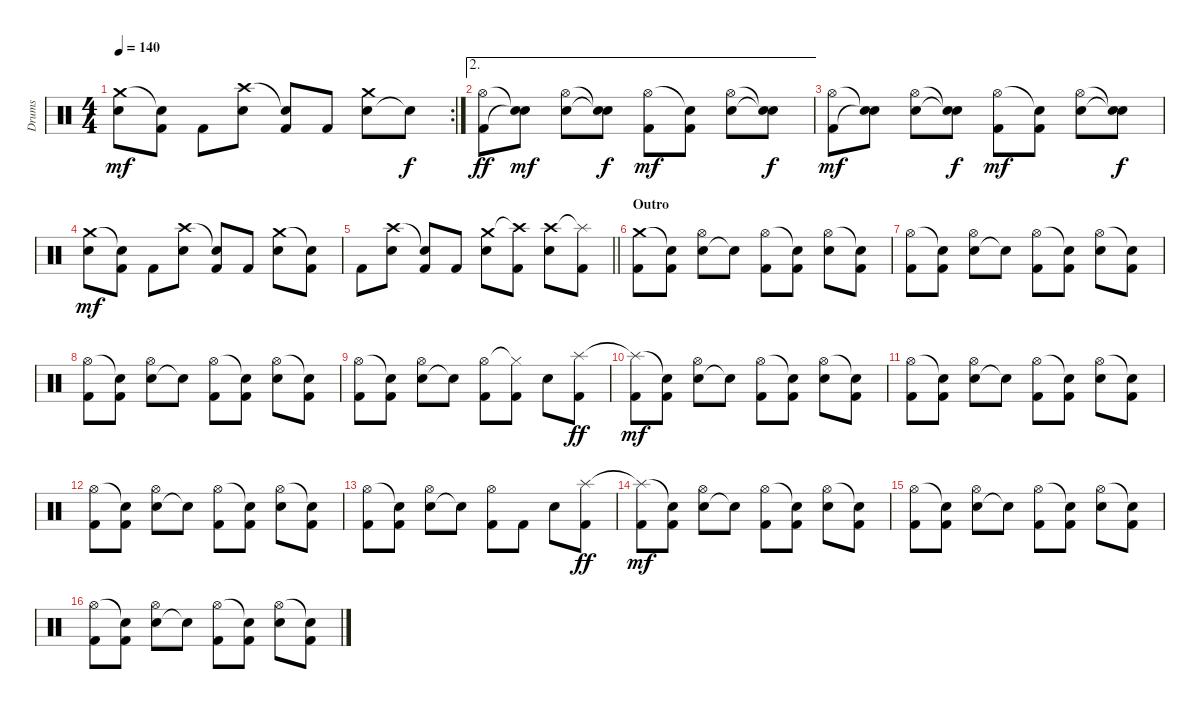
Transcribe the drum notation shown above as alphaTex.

\track ("Drums" "Drums") {instrument percussion}
\staff {score}
\articulation defaults
\rc 2
\ts (4 4)
\tempo 140
\clef neutral
\ks c
("Snare (hit) 2" "Crash medium (hit)").8{dy mf} ("Kick (hit) 2" "Snare (hit)"{t}).8 "Kick (hit) 2".8 ("Snare (hit) 2" "Crash high (hit)").8 ("Kick (hit) 2" "Snare (hit)"{t}).8 "Kick (hit) 2".8 ("Snare (hit) 2" "Crash medium (hit)").8 "Snare (hit)"{t}.8{dy f} |
\ae 2
("Kick (hit) 2" "Hi-Hat (open)").8{dy ff} ("Snare (hit)"{t} "Snare (hit)"{t}).8{dy mf} ("Snare (hit) 2" "Hi-Hat (open)").8 ("Snare (hit)"{t} "Snare (hit)"{t}).8{dy f} ("Kick (hit) 2" "Hi-Hat (open)").8{dy mf} ("Kick (hit) 2" "Snare (hit)"{t}).8 ("Snare (hit) 2" "Hi-Hat (open)").8 ("Snare (hit)"{t} "Snare (hit)"{t}).8{dy f} |
("Kick (hit) 2" "Hi-Hat (open)").8{dy mf} ("Snare (hit)"{t} "Snare (hit)"{t}).8 ("Snare (hit) 2" "Hi-Hat (open)").8 ("Snare (hit)"{t} "Snare (hit)"{t}).8{dy f} ("Kick (hit) 2" "Hi-Hat (open)").8{dy mf} ("Kick (hit) 2" "Snare (hit)"{t}).8 ("Snare (hit) 2" "Hi-Hat (open)").8 ("Snare (hit)"{t} "Snare (hit)"{t}).8{dy f} |
("Snare (hit) 2" "Crash medium (hit)").8{dy mf} ("Kick (hit) 2" "Snare (hit)"{t}).8 "Kick (hit) 2".8 ("Snare (hit) 2" "Crash high (hit)").8 ("Kick (hit) 2" "Snare (hit)"{t}).8 "Kick (hit) 2".8 ("Snare (hit) 2" "Crash medium (hit)").8 ("Kick (hit) 2" "Snare (hit)"{t}).8 |
\barLineRight lightlight "Kick (hit) 2".8
("Snare (hit) 2" "Crash high (hit)").8 ("Kick (hit) 2" "Snare (hit)"{t}).8 "Kick (hit) 2".8 ("Snare (hit) 2" "Crash medium (hit)").8 ("Kick (hit) 2" "Crash high (hit)"{t}).8 ("Snare (hit) 2" "Crash high (hit)").8 ("Kick (hit) 2" "Splash (hit)"{t}).8 |
\section ("" "Outro")
("Kick (hit) 2" "Crash medium (hit)").8 ("Kick (hit) 2" "Snare (hit)"{t}).8 ("Snare (hit) 2" "Hi-Hat (open)").8 "Snare (hit)"{t}.8 ("Kick (hit) 2" "Hi-Hat (open)").8 ("Kick (hit) 2" "Snare (hit)"{t}).8 ("Snare (hit) 2" "Hi-Hat (open)").8 ("Kick (hit) 2" "Snare (hit)"{t}).8 |
("Kick (hit) 2" "Hi-Hat (open)").8 ("Kick (hit) 2" "Snare (hit)"{t}).8 ("Snare (hit) 2" "Hi-Hat (open)").8 "Snare (hit)"{t}.8 ("Kick (hit) 2" "Hi-Hat (open)").8 ("Kick (hit) 2" "Snare (hit)"{t}).8 ("Snare (hit) 2" "Hi-Hat (open)").8 ("Kick (hit) 2" "Snare (hit)"{t}).8 |
("Kick (hit) 2" "Hi-Hat (open)").8 ("Kick (hit) 2" "Snare (hit)"{t}).8 ("Snare (hit) 2" "Hi-Hat (open)").8 "Snare (hit)"{t}.8 ("Kick (hit) 2" "Hi-Hat (open)").8 ("Kick (hit) 2" "Snare (hit)"{t}).8 ("Snare (hit) 2" "Hi-Hat (open)").8 ("Kick (hit) 2" "Snare (hit)"{t}).8 |
("Kick (hit) 2" "Hi-Hat (open)").8 ("Kick (hit) 2" "Snare (hit)"{t}).8 ("Snare (hit) 2" "Hi-Hat (open)").8 "Snare (hit)"{t}.8 ("Kick (hit) 2" "Hi-Hat (open)").8 ("Kick (hit) 2" "Hi-Hat (closed)"{t}).8 "Snare (hit) 2".8 ("Kick (hit) 2" "Splash (hit)").8{dy ff} |
("Kick (hit) 2" "Splash (hit)"{t}).8{dy mf} ("Kick (hit) 2" "Snare (hit)"{t}).8 ("Snare (hit) 2" "Hi-Hat (open)").8 "Snare (hit)"{t}.8 ("Kick (hit) 2" "Hi-Hat (open)").8 ("Kick (hit) 2" "Snare (hit)"{t}).8 ("Snare (hit) 2" "Hi-Hat (open)").8 ("Kick (hit) 2" "Snare (hit)"{t}).8 |
("Kick (hit) 2" "Hi-Hat (open)").8 ("Kick (hit) 2" "Snare (hit)"{t}).8 ("Snare (hit) 2" "Hi-Hat (open)").8 "Snare (hit)"{t}.8 ("Kick (hit) 2" "Hi-Hat (open)").8 ("Kick (hit) 2" "Snare (hit)"{t}).8 ("Snare (hit) 2" "Hi-Hat (open)").8 ("Kick (hit) 2" "Snare (hit)"{t}).8 |
("Kick (hit) 2" "Hi-Hat (open)").8 ("Kick (hit) 2" "Snare (hit)"{t}).8 ("Snare (hit) 2" "Hi-Hat (open)").8 "Snare (hit)"{t}.8 ("Kick (hit) 2" "Hi-Hat (open)").8 ("Kick (hit) 2" "Snare (hit)"{t}).8 ("Snare (hit) 2" "Hi-Hat (open)").8 ("Kick (hit) 2" "Snare (hit)"{t}).8 |
("Kick (hit) 2" "Hi-Hat (open)").8 ("Kick (hit) 2" "Snare (hit)"{t}).8 ("Snare (hit) 2" "Hi-Hat (open)").8 "Snare (hit)"{t}.8 ("Kick (hit) 2" "Hi-Hat (open)").8 "Kick (hit) 2".8 "Snare (hit) 2".8 ("Kick (hit) 2" "Splash (hit)").8{dy ff} |
("Kick (hit) 2" "Splash (hit)"{t}).8{dy mf} ("Kick (hit) 2" "Snare (hit)"{t}).8 ("Snare (hit) 2" "Hi-Hat (open)").8 "Snare (hit)"{t}.8 ("Kick (hit) 2" "Hi-Hat (open)").8 ("Kick (hit) 2" "Snare (hit)"{t}).8 ("Snare (hit) 2" "Hi-Hat (open)").8 ("Kick (hit) 2" "Snare (hit)"{t}).8 |
("Kick (hit) 2" "Hi-Hat (open)").8 ("Kick (hit) 2" "Snare (hit)"{t}).8 ("Snare (hit) 2" "Hi-Hat (open)").8 "Snare (hit)"{t}.8 ("Kick (hit) 2" "Hi-Hat (open)").8 ("Kick (hit) 2" "Snare (hit)"{t}).8 ("Snare (hit) 2" "Hi-Hat (open)").8 ("Kick (hit) 2" "Snare (hit)"{t}).8 |
("Kick (hit) 2" "Hi-Hat (open)").8 ("Kick (hit) 2" "Snare (hit)"{t}).8 ("Snare (hit) 2" "Hi-Hat (open)").8 "Snare (hit)"{t}.8 ("Kick (hit) 2" "Hi-Hat (open)").8 ("Kick (hit) 2" "Snare (hit)"{t}).8 ("Snare (hit) 2" "Hi-Hat (open)").8 ("Kick (hit) 2" "Snare (hit)"{t}).8
